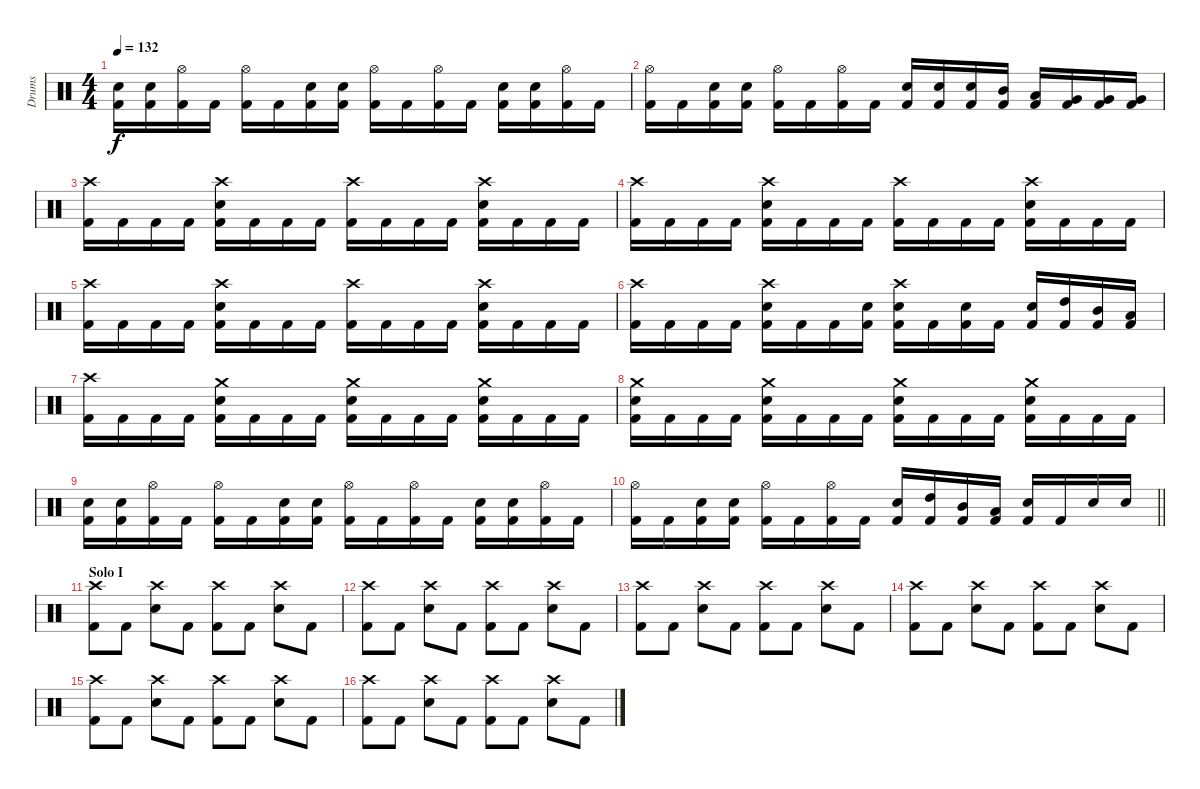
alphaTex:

\track ("Drums" "Drums") {instrument percussion}
\staff {score}
\articulation defaults
\ts (4 4)
\tempo 132
\clef neutral
\ks c
("Snare (hit) 2" "Kick (hit) 2").16{dy f} ("Snare (hit) 2" "Kick (hit) 2").16 ("Hi-Hat (open)" "Kick (hit) 2").16 "Kick (hit) 2".16 ("Hi-Hat (open)" "Kick (hit) 2").16 "Kick (hit) 2".16 ("Snare (hit) 2" "Kick (hit) 2").16 ("Snare (hit) 2" "Kick (hit) 2").16 ("Hi-Hat (open)" "Kick (hit) 2").16 "Kick (hit) 2".16 ("Hi-Hat (open)" "Kick (hit) 2").16 "Kick (hit) 2".16 ("Snare (hit) 2" "Kick (hit) 2").16 ("Snare (hit) 2" "Kick (hit) 2").16 ("Hi-Hat (open)" "Kick (hit) 2").16 "Kick (hit) 2".16 |
("Hi-Hat (open)" "Kick (hit) 2").16 "Kick (hit) 2".16 ("Snare (hit) 2" "Kick (hit) 2").16 ("Snare (hit) 2" "Kick (hit) 2").16 ("Hi-Hat (open)" "Kick (hit) 2").16 "Kick (hit) 2".16 ("Hi-Hat (open)" "Kick (hit) 2").16 "Kick (hit) 2".16 ("Snare (hit) 2" "Kick (hit) 2").16 ("Snare (hit) 2" "Kick (hit) 2").16 ("Snare (hit) 2" "Kick (hit) 2").16 ("Mid Tom (hit)" "Kick (hit) 2").16 ("Low Tom (hit)" "Kick (hit) 2").16 ("Very Low Tom (hit)" "Kick (hit) 2").16 ("Very Low Tom (hit)" "Kick (hit) 2").16 ("Very Low Tom (hit)" "Kick (hit) 2").16 |
("Crash high (hit)" "Kick (hit) 2").16 "Kick (hit) 2".16 "Kick (hit) 2".16 "Kick (hit) 2".16 ("Crash high (hit)" "Snare (hit) 2" "Kick (hit) 2").16 "Kick (hit) 2".16 "Kick (hit) 2".16 "Kick (hit) 2".16 ("Crash high (hit)" "Kick (hit) 2").16 "Kick (hit) 2".16 "Kick (hit) 2".16 "Kick (hit) 2".16 ("Crash high (hit)" "Snare (hit) 2" "Kick (hit) 2").16 "Kick (hit) 2".16 "Kick (hit) 2".16 "Kick (hit) 2".16 |
("Crash high (hit)" "Kick (hit) 2").16 "Kick (hit) 2".16 "Kick (hit) 2".16 "Kick (hit) 2".16 ("Crash high (hit)" "Snare (hit) 2" "Kick (hit) 2").16 "Kick (hit) 2".16 "Kick (hit) 2".16 "Kick (hit) 2".16 ("Crash high (hit)" "Kick (hit) 2").16 "Kick (hit) 2".16 "Kick (hit) 2".16 "Kick (hit) 2".16 ("Crash high (hit)" "Snare (hit) 2" "Kick (hit) 2").16 "Kick (hit) 2".16 "Kick (hit) 2".16 "Kick (hit) 2".16 |
("Crash high (hit)" "Kick (hit) 2").16 "Kick (hit) 2".16 "Kick (hit) 2".16 "Kick (hit) 2".16 ("Crash high (hit)" "Snare (hit) 2" "Kick (hit) 2").16 "Kick (hit) 2".16 "Kick (hit) 2".16 "Kick (hit) 2".16 ("Crash high (hit)" "Kick (hit) 2").16 "Kick (hit) 2".16 "Kick (hit) 2".16 "Kick (hit) 2".16 ("Crash high (hit)" "Snare (hit) 2" "Kick (hit) 2").16 "Kick (hit) 2".16 "Kick (hit) 2".16 "Kick (hit) 2".16 |
("Crash high (hit)" "Kick (hit) 2").16 "Kick (hit) 2".16 "Kick (hit) 2".16 "Kick (hit) 2".16 ("Crash high (hit)" "Snare (hit) 2" "Kick (hit) 2").16 "Kick (hit) 2".16 "Kick (hit) 2".16 ("Snare (hit) 2" "Kick (hit) 2").16 ("Crash high (hit)" "Snare (hit) 2" "Kick (hit) 2").16 "Kick (hit) 2".16 ("Snare (hit) 2" "Kick (hit) 2").16 "Kick (hit) 2".16 ("Snare (hit) 2" "Kick (hit) 2").16 ("High Tom (hit)" "Kick (hit) 2").16 ("Mid Tom (hit)" "Kick (hit) 2").16 ("Low Tom (hit)" "Kick (hit) 2").16 |
("Crash high (hit)" "Kick (hit) 2").16 "Kick (hit) 2".16 "Kick (hit) 2".16 "Kick (hit) 2".16 ("Crash medium (hit)" "Snare (hit) 2" "Kick (hit) 2").16 "Kick (hit) 2".16 "Kick (hit) 2".16 "Kick (hit) 2".16 ("Crash medium (hit)" "Snare (hit) 2" "Kick (hit) 2").16 "Kick (hit) 2".16 "Kick (hit) 2".16 "Kick (hit) 2".16 ("Crash medium (hit)" "Snare (hit) 2" "Kick (hit) 2").16 "Kick (hit) 2".16 "Kick (hit) 2".16 "Kick (hit) 2".16 |
("Crash medium (hit)" "Snare (hit) 2" "Kick (hit) 2").16 "Kick (hit) 2".16 "Kick (hit) 2".16 "Kick (hit) 2".16 ("Crash medium (hit)" "Snare (hit) 2" "Kick (hit) 2").16 "Kick (hit) 2".16 "Kick (hit) 2".16 "Kick (hit) 2".16 ("Crash medium (hit)" "Snare (hit) 2" "Kick (hit) 2").16 "Kick (hit) 2".16 "Kick (hit) 2".16 "Kick (hit) 2".16 ("Crash medium (hit)" "Snare (hit) 2" "Kick (hit) 2").16 "Kick (hit) 2".16 "Kick (hit) 2".16 "Kick (hit) 2".16 |
("Snare (hit) 2" "Kick (hit) 2").16 ("Snare (hit) 2" "Kick (hit) 2").16 ("Hi-Hat (open)" "Kick (hit) 2").16 "Kick (hit) 2".16 ("Hi-Hat (open)" "Kick (hit) 2").16 "Kick (hit) 2".16 ("Snare (hit) 2" "Kick (hit) 2").16 ("Snare (hit) 2" "Kick (hit) 2").16 ("Hi-Hat (open)" "Kick (hit) 2").16 "Kick (hit) 2".16 ("Hi-Hat (open)" "Kick (hit) 2").16 "Kick (hit) 2".16 ("Snare (hit) 2" "Kick (hit) 2").16 ("Snare (hit) 2" "Kick (hit) 2").16 ("Hi-Hat (open)" "Kick (hit) 2").16 "Kick (hit) 2".16 |
\barLineRight lightlight
("Hi-Hat (open)" "Kick (hit) 2").16 "Kick (hit) 2".16 ("Snare (hit) 2" "Kick (hit) 2").16 ("Snare (hit) 2" "Kick (hit) 2").16 ("Hi-Hat (open)" "Kick (hit) 2").16 "Kick (hit) 2".16 ("Hi-Hat (open)" "Kick (hit) 2").16 "Kick (hit) 2".16 ("Snare (hit) 2" "Kick (hit) 2").16 ("High Tom (hit)" "Kick (hit) 2").16 ("Mid Tom (hit)" "Kick (hit) 2").16 ("Low Tom (hit)" "Kick (hit) 2").16 ("Snare (hit) 2" "Kick (hit) 2").16 "Kick (hit) 2".16 "Snare (hit) 2".16 "Snare (hit) 2".16 |
\section ("" "Solo I")
("Crash high (hit)" "Kick (hit) 2").8 "Kick (hit) 2".8 ("Crash high (hit)" "Snare (hit) 2").8 "Kick (hit) 2".8 ("Crash high (hit)" "Kick (hit) 2").8 "Kick (hit) 2".8 ("Crash high (hit)" "Snare (hit) 2").8 "Kick (hit) 2".8 |
("Crash high (hit)" "Kick (hit) 2").8 "Kick (hit) 2".8 ("Crash high (hit)" "Snare (hit) 2").8 "Kick (hit) 2".8 ("Crash high (hit)" "Kick (hit) 2").8 "Kick (hit) 2".8 ("Crash high (hit)" "Snare (hit) 2").8 "Kick (hit) 2".8 |
("Crash high (hit)" "Kick (hit) 2").8 "Kick (hit) 2".8 ("Crash high (hit)" "Snare (hit) 2").8 "Kick (hit) 2".8 ("Crash high (hit)" "Kick (hit) 2").8 "Kick (hit) 2".8 ("Crash high (hit)" "Snare (hit) 2").8 "Kick (hit) 2".8 |
("Crash high (hit)" "Kick (hit) 2").8 "Kick (hit) 2".8 ("Crash high (hit)" "Snare (hit) 2").8 "Kick (hit) 2".8 ("Crash high (hit)" "Kick (hit) 2").8 "Kick (hit) 2".8 ("Crash high (hit)" "Snare (hit) 2").8 "Kick (hit) 2".8 |
("Crash high (hit)" "Kick (hit) 2").8 "Kick (hit) 2".8 ("Crash high (hit)" "Snare (hit) 2").8 "Kick (hit) 2".8 ("Crash high (hit)" "Kick (hit) 2").8 "Kick (hit) 2".8 ("Crash high (hit)" "Snare (hit) 2").8 "Kick (hit) 2".8 |
("Crash high (hit)" "Kick (hit) 2").8 "Kick (hit) 2".8 ("Crash high (hit)" "Snare (hit) 2").8 "Kick (hit) 2".8 ("Crash high (hit)" "Kick (hit) 2").8 "Kick (hit) 2".8 ("Crash high (hit)" "Snare (hit) 2").8 "Kick (hit) 2".8
